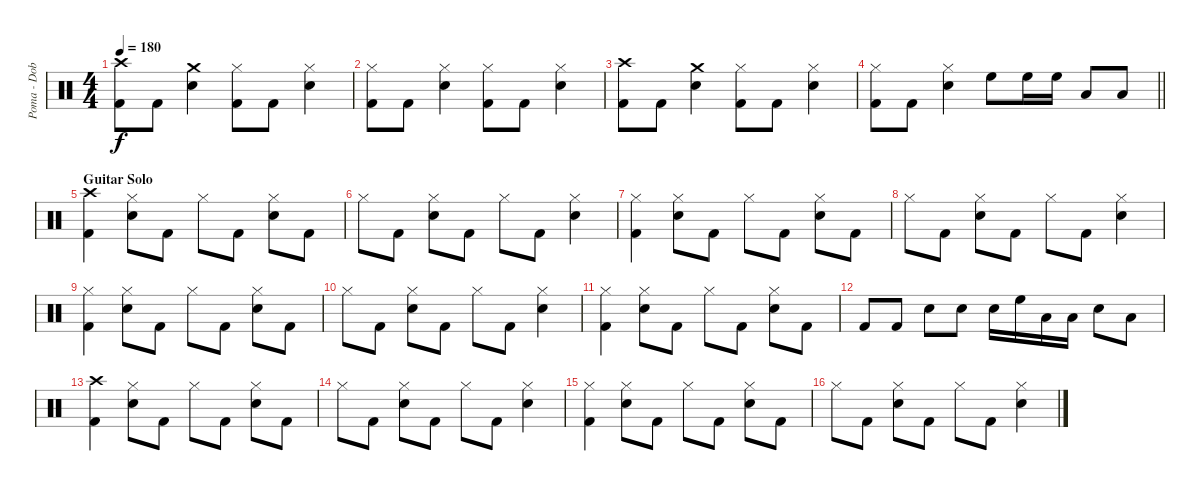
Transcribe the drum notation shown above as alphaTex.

\track ("Poma - Dob" "Poma - Dob") {instrument percussion}
\staff {score}
\articulation defaults
\ts (4 4)
\tempo 180
\clef neutral
\ks c
("Crash high (hit)" "Kick (hit) 2").8{dy f} "Kick (hit) 2".8 ("Crash medium (hit)" "Electric Snare (hit)").4 ("Hi-Hat (closed)" "Kick (hit) 2").8 "Kick (hit) 2".8 ("Hi-Hat (closed)" "Electric Snare (hit)").4 |
("Hi-Hat (closed)" "Kick (hit) 2").8 "Kick (hit) 2".8 ("Hi-Hat (closed)" "Electric Snare (hit)").4 ("Hi-Hat (closed)" "Kick (hit) 2").8 "Kick (hit) 2".8 ("Hi-Hat (closed)" "Electric Snare (hit)").4 |
("Crash high (hit)" "Kick (hit) 2").8 "Kick (hit) 2".8 ("Crash medium (hit)" "Electric Snare (hit)").4 ("Hi-Hat (closed)" "Kick (hit) 2").8 "Kick (hit) 2".8 ("Hi-Hat (closed)" "Electric Snare (hit)").4 |
\barLineRight lightlight
("Hi-Hat (closed)" "Kick (hit) 2").8 "Kick (hit) 2".8 ("Hi-Hat (closed)" "Electric Snare (hit)").4 "High Floor Tom (hit)".8 "High Floor Tom (hit)".16 "High Floor Tom (hit)".16 "Low Tom (hit)".8 "Low Tom (hit)".8 |
\section ("" "Guitar Solo")
("Crash high (hit)" "Kick (hit) 2").4 ("Hi-Hat (closed)" "Electric Snare (hit)").8 "Kick (hit) 2".8 "Hi-Hat (closed)".8 "Kick (hit) 2".8 ("Hi-Hat (closed)" "Electric Snare (hit)").8 "Kick (hit) 2".8 |
"Hi-Hat (closed)".8 "Kick (hit) 2".8 ("Hi-Hat (closed)" "Electric Snare (hit)").8 "Kick (hit) 2".8 "Hi-Hat (closed)".8 "Kick (hit) 2".8 ("Hi-Hat (closed)" "Electric Snare (hit)").4 |
("Hi-Hat (closed)" "Kick (hit) 2").4 ("Hi-Hat (closed)" "Electric Snare (hit)").8 "Kick (hit) 2".8 "Hi-Hat (closed)".8 "Kick (hit) 2".8 ("Hi-Hat (closed)" "Electric Snare (hit)").8 "Kick (hit) 2".8 |
"Hi-Hat (closed)".8 "Kick (hit) 2".8 ("Hi-Hat (closed)" "Electric Snare (hit)").8 "Kick (hit) 2".8 "Hi-Hat (closed)".8 "Kick (hit) 2".8 ("Hi-Hat (closed)" "Electric Snare (hit)").4 |
("Hi-Hat (closed)" "Kick (hit) 2").4 ("Hi-Hat (closed)" "Electric Snare (hit)").8 "Kick (hit) 2".8 "Hi-Hat (closed)".8 "Kick (hit) 2".8 ("Hi-Hat (closed)" "Electric Snare (hit)").8 "Kick (hit) 2".8 |
"Hi-Hat (closed)".8 "Kick (hit) 2".8 ("Hi-Hat (closed)" "Electric Snare (hit)").8 "Kick (hit) 2".8 "Hi-Hat (closed)".8 "Kick (hit) 2".8 ("Hi-Hat (closed)" "Electric Snare (hit)").4 |
("Hi-Hat (closed)" "Kick (hit) 2").4 ("Hi-Hat (closed)" "Electric Snare (hit)").8 "Kick (hit) 2".8 "Hi-Hat (closed)".8 "Kick (hit) 2".8 ("Hi-Hat (closed)" "Electric Snare (hit)").8 "Kick (hit) 2".8 |
"Kick (hit) 2".8 "Kick (hit) 2".8 "Electric Snare (hit)".8 "Electric Snare (hit)".8 "Electric Snare (hit)".16 "High Floor Tom (hit)".16 "Low Tom (hit)".16 "Low Tom (hit)".16 "Electric Snare (hit)".8 "Low Tom (hit)".8 |
("Crash high (hit)" "Kick (hit) 2").4 ("Hi-Hat (closed)" "Electric Snare (hit)").8 "Kick (hit) 2".8 "Hi-Hat (closed)".8 "Kick (hit) 2".8 ("Hi-Hat (closed)" "Electric Snare (hit)").8 "Kick (hit) 2".8 |
"Hi-Hat (closed)".8 "Kick (hit) 2".8 ("Hi-Hat (closed)" "Electric Snare (hit)").8 "Kick (hit) 2".8 "Hi-Hat (closed)".8 "Kick (hit) 2".8 ("Hi-Hat (closed)" "Electric Snare (hit)").4 |
("Hi-Hat (closed)" "Kick (hit) 2").4 ("Hi-Hat (closed)" "Electric Snare (hit)").8 "Kick (hit) 2".8 "Hi-Hat (closed)".8 "Kick (hit) 2".8 ("Hi-Hat (closed)" "Electric Snare (hit)").8 "Kick (hit) 2".8 |
"Hi-Hat (closed)".8 "Kick (hit) 2".8 ("Hi-Hat (closed)" "Electric Snare (hit)").8 "Kick (hit) 2".8 "Hi-Hat (closed)".8 "Kick (hit) 2".8 ("Hi-Hat (closed)" "Electric Snare (hit)").4
